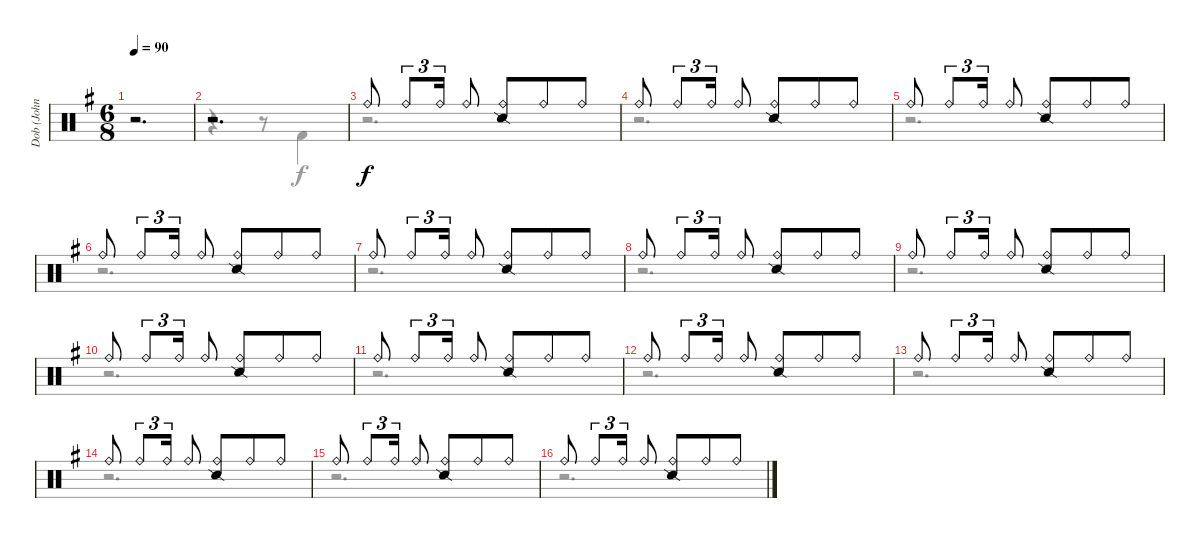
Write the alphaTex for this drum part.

\track ("Dob (John Macaluso)" "Dob (John ") {instrument percussion}
\staff {score}
\articulation defaults
\voice
\ts (6 8)
\tempo 90
\clef neutral
\ks g
r.2{d dy f} |
r.2{d} |
"Ride (bell)".8 "Ride (bell)".8{tu (3 2)} "Ride (bell)".16{tu (3 2)} "Ride (bell)".8 ("Ride (bell)" "Snare (side stick) 2").8 "Ride (bell)".8 "Ride (bell)".8 |
"Ride (bell)".8 "Ride (bell)".8{tu (3 2)} "Ride (bell)".16{tu (3 2)} "Ride (bell)".8 ("Ride (bell)" "Snare (side stick) 2").8 "Ride (bell)".8 "Ride (bell)".8 |
"Ride (bell)".8 "Ride (bell)".8{tu (3 2)} "Ride (bell)".16{tu (3 2)} "Ride (bell)".8 ("Ride (bell)" "Snare (side stick) 2").8 "Ride (bell)".8 "Ride (bell)".8 |
"Ride (bell)".8 "Ride (bell)".8{tu (3 2)} "Ride (bell)".16{tu (3 2)} "Ride (bell)".8 ("Ride (bell)" "Snare (side stick) 2").8 "Ride (bell)".8 "Ride (bell)".8 |
"Ride (bell)".8 "Ride (bell)".8{tu (3 2)} "Ride (bell)".16{tu (3 2)} "Ride (bell)".8 ("Ride (bell)" "Snare (side stick) 2").8 "Ride (bell)".8 "Ride (bell)".8 |
"Ride (bell)".8 "Ride (bell)".8{tu (3 2)} "Ride (bell)".16{tu (3 2)} "Ride (bell)".8 ("Ride (bell)" "Snare (side stick) 2").8 "Ride (bell)".8 "Ride (bell)".8 |
"Ride (bell)".8 "Ride (bell)".8{tu (3 2)} "Ride (bell)".16{tu (3 2)} "Ride (bell)".8 ("Ride (bell)" "Snare (side stick) 2").8 "Ride (bell)".8 "Ride (bell)".8 |
"Ride (bell)".8 "Ride (bell)".8{tu (3 2)} "Ride (bell)".16{tu (3 2)} "Ride (bell)".8 ("Ride (bell)" "Snare (side stick) 2").8 "Ride (bell)".8 "Ride (bell)".8 |
"Ride (bell)".8 "Ride (bell)".8{tu (3 2)} "Ride (bell)".16{tu (3 2)} "Ride (bell)".8 ("Ride (bell)" "Snare (side stick) 2").8 "Ride (bell)".8 "Ride (bell)".8 |
"Ride (bell)".8 "Ride (bell)".8{tu (3 2)} "Ride (bell)".16{tu (3 2)} "Ride (bell)".8 ("Ride (bell)" "Snare (side stick) 2").8 "Ride (bell)".8 "Ride (bell)".8 |
"Ride (bell)".8 "Ride (bell)".8{tu (3 2)} "Ride (bell)".16{tu (3 2)} "Ride (bell)".8 ("Ride (bell)" "Snare (side stick) 2").8 "Ride (bell)".8 "Ride (bell)".8 |
"Ride (bell)".8 "Ride (bell)".8{tu (3 2)} "Ride (bell)".16{tu (3 2)} "Ride (bell)".8 ("Ride (bell)" "Snare (side stick) 2").8 "Ride (bell)".8 "Ride (bell)".8 |
"Ride (bell)".8 "Ride (bell)".8{tu (3 2)} "Ride (bell)".16{tu (3 2)} "Ride (bell)".8 ("Ride (bell)" "Snare (side stick) 2").8 "Ride (bell)".8 "Ride (bell)".8 |
"Ride (bell)".8 "Ride (bell)".8{tu (3 2)} "Ride (bell)".16{tu (3 2)} "Ride (bell)".8 ("Ride (bell)" "Snare (side stick) 2").8 "Ride (bell)".8 "Ride (bell)".8
\voice
\clef neutral
\ottava regular
\simile none
\ks g
r.2{d dy f} |
r.4{d} r.8 "Kick (hit) 2".4 |
r.2{d} |
r.2{d} |
r.2{d} |
r.2{d} |
r.2{d} |
r.2{d} |
r.2{d} |
r.2{d} |
r.2{d} |
r.2{d} |
r.2{d} |
r.2{d} |
r.2{d} |
r.2{d}
